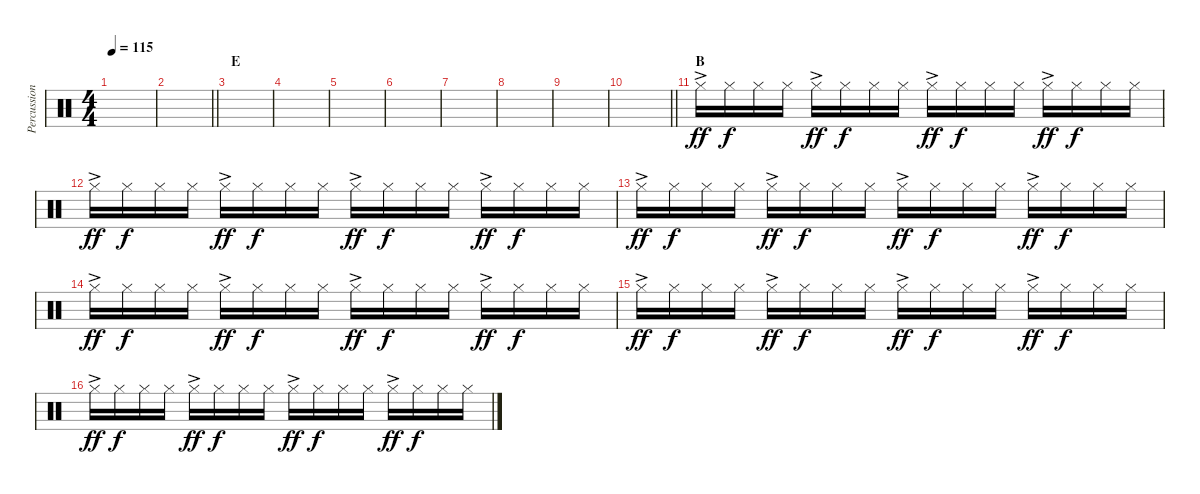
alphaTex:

\track ("Percussion" "Percussion") {instrument percussion}
\staff {score}
\articulation defaults
\ts (4 4)
\tempo 115
\clef neutral
\ks c
|
\barLineRight lightlight
|
\section ("" "E")
|
|
|
|
|
|
|
\barLineRight lightlight
|
\section ("" "B")
"Hi-Hat (closed)"{ac}.16{dy ff} "Hi-Hat (closed)".16{dy f} "Hi-Hat (closed)".16 "Hi-Hat (closed)".16 "Hi-Hat (closed)"{ac}.16{dy ff} "Hi-Hat (closed)".16{dy f} "Hi-Hat (closed)".16 "Hi-Hat (closed)".16 "Hi-Hat (closed)"{ac}.16{dy ff} "Hi-Hat (closed)".16{dy f} "Hi-Hat (closed)".16 "Hi-Hat (closed)".16 "Hi-Hat (closed)"{ac}.16{dy ff} "Hi-Hat (closed)".16{dy f} "Hi-Hat (closed)".16 "Hi-Hat (closed)".16 |
"Hi-Hat (closed)"{ac}.16{dy ff} "Hi-Hat (closed)".16{dy f} "Hi-Hat (closed)".16 "Hi-Hat (closed)".16 "Hi-Hat (closed)"{ac}.16{dy ff} "Hi-Hat (closed)".16{dy f} "Hi-Hat (closed)".16 "Hi-Hat (closed)".16 "Hi-Hat (closed)"{ac}.16{dy ff} "Hi-Hat (closed)".16{dy f} "Hi-Hat (closed)".16 "Hi-Hat (closed)".16 "Hi-Hat (closed)"{ac}.16{dy ff} "Hi-Hat (closed)".16{dy f} "Hi-Hat (closed)".16 "Hi-Hat (closed)".16 |
"Hi-Hat (closed)"{ac}.16{dy ff} "Hi-Hat (closed)".16{dy f} "Hi-Hat (closed)".16 "Hi-Hat (closed)".16 "Hi-Hat (closed)"{ac}.16{dy ff} "Hi-Hat (closed)".16{dy f} "Hi-Hat (closed)".16 "Hi-Hat (closed)".16 "Hi-Hat (closed)"{ac}.16{dy ff} "Hi-Hat (closed)".16{dy f} "Hi-Hat (closed)".16 "Hi-Hat (closed)".16 "Hi-Hat (closed)"{ac}.16{dy ff} "Hi-Hat (closed)".16{dy f} "Hi-Hat (closed)".16 "Hi-Hat (closed)".16 |
"Hi-Hat (closed)"{ac}.16{dy ff} "Hi-Hat (closed)".16{dy f} "Hi-Hat (closed)".16 "Hi-Hat (closed)".16 "Hi-Hat (closed)"{ac}.16{dy ff} "Hi-Hat (closed)".16{dy f} "Hi-Hat (closed)".16 "Hi-Hat (closed)".16 "Hi-Hat (closed)"{ac}.16{dy ff} "Hi-Hat (closed)".16{dy f} "Hi-Hat (closed)".16 "Hi-Hat (closed)".16 "Hi-Hat (closed)"{ac}.16{dy ff} "Hi-Hat (closed)".16{dy f} "Hi-Hat (closed)".16 "Hi-Hat (closed)".16 |
"Hi-Hat (closed)"{ac}.16{dy ff} "Hi-Hat (closed)".16{dy f} "Hi-Hat (closed)".16 "Hi-Hat (closed)".16 "Hi-Hat (closed)"{ac}.16{dy ff} "Hi-Hat (closed)".16{dy f} "Hi-Hat (closed)".16 "Hi-Hat (closed)".16 "Hi-Hat (closed)"{ac}.16{dy ff} "Hi-Hat (closed)".16{dy f} "Hi-Hat (closed)".16 "Hi-Hat (closed)".16 "Hi-Hat (closed)"{ac}.16{dy ff} "Hi-Hat (closed)".16{dy f} "Hi-Hat (closed)".16 "Hi-Hat (closed)".16 |
"Hi-Hat (closed)"{ac}.16{dy ff} "Hi-Hat (closed)".16{dy f} "Hi-Hat (closed)".16 "Hi-Hat (closed)".16 "Hi-Hat (closed)"{ac}.16{dy ff} "Hi-Hat (closed)".16{dy f} "Hi-Hat (closed)".16 "Hi-Hat (closed)".16 "Hi-Hat (closed)"{ac}.16{dy ff} "Hi-Hat (closed)".16{dy f} "Hi-Hat (closed)".16 "Hi-Hat (closed)".16 "Hi-Hat (closed)"{ac}.16{dy ff} "Hi-Hat (closed)".16{dy f} "Hi-Hat (closed)".16 "Hi-Hat (closed)".16
